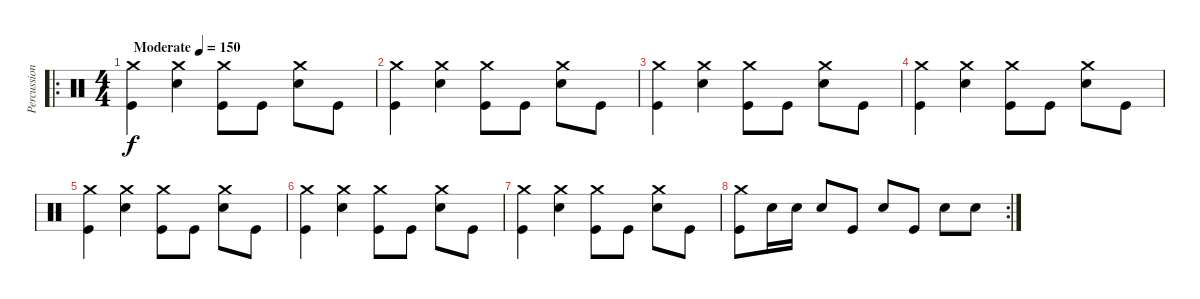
\track ("Percussion" "Percussion") {instrument percussion}
\staff {score}
\articulation defaults
\ro
\ts (4 4)
\tempo (150 "Moderate")
\clef neutral
\ks c
("Crash medium (hit)" "Kick (hit)").4{dy f} ("Crash medium (hit)" "Snare (hit) 2").4 ("Crash medium (hit)" "Kick (hit)").8 "Kick (hit)".8 ("Crash medium (hit)" "Snare (hit) 2").8 "Kick (hit)".8 |
("Crash medium (hit)" "Kick (hit)").4 ("Crash medium (hit)" "Snare (hit) 2").4 ("Crash medium (hit)" "Kick (hit)").8 "Kick (hit)".8 ("Crash medium (hit)" "Snare (hit) 2").8 "Kick (hit)".8 |
("Crash medium (hit)" "Kick (hit)").4 ("Crash medium (hit)" "Snare (hit) 2").4 ("Crash medium (hit)" "Kick (hit)").8 "Kick (hit)".8 ("Crash medium (hit)" "Snare (hit) 2").8 "Kick (hit)".8 |
("Crash medium (hit)" "Kick (hit)").4 ("Crash medium (hit)" "Snare (hit) 2").4 ("Crash medium (hit)" "Kick (hit)").8 "Kick (hit)".8 ("Crash medium (hit)" "Snare (hit) 2").8 "Kick (hit)".8 |
("Crash medium (hit)" "Kick (hit)").4 ("Crash medium (hit)" "Snare (hit) 2").4 ("Crash medium (hit)" "Kick (hit)").8 "Kick (hit)".8 ("Crash medium (hit)" "Snare (hit) 2").8 "Kick (hit)".8 |
("Crash medium (hit)" "Kick (hit)").4 ("Crash medium (hit)" "Snare (hit) 2").4 ("Crash medium (hit)" "Kick (hit)").8 "Kick (hit)".8 ("Crash medium (hit)" "Snare (hit) 2").8 "Kick (hit)".8 |
("Crash medium (hit)" "Kick (hit)").4 ("Crash medium (hit)" "Snare (hit) 2").4 ("Crash medium (hit)" "Kick (hit)").8 "Kick (hit)".8 ("Crash medium (hit)" "Snare (hit) 2").8 "Kick (hit)".8 |
\rc 2
("Crash medium (hit)" "Kick (hit)").8 "Snare (hit) 2".16 "Snare (hit) 2".16 "Snare (hit) 2".8 "Kick (hit)".8 "Snare (hit) 2".8 "Kick (hit)".8 "Snare (hit) 2".8 "Snare (hit) 2".8
